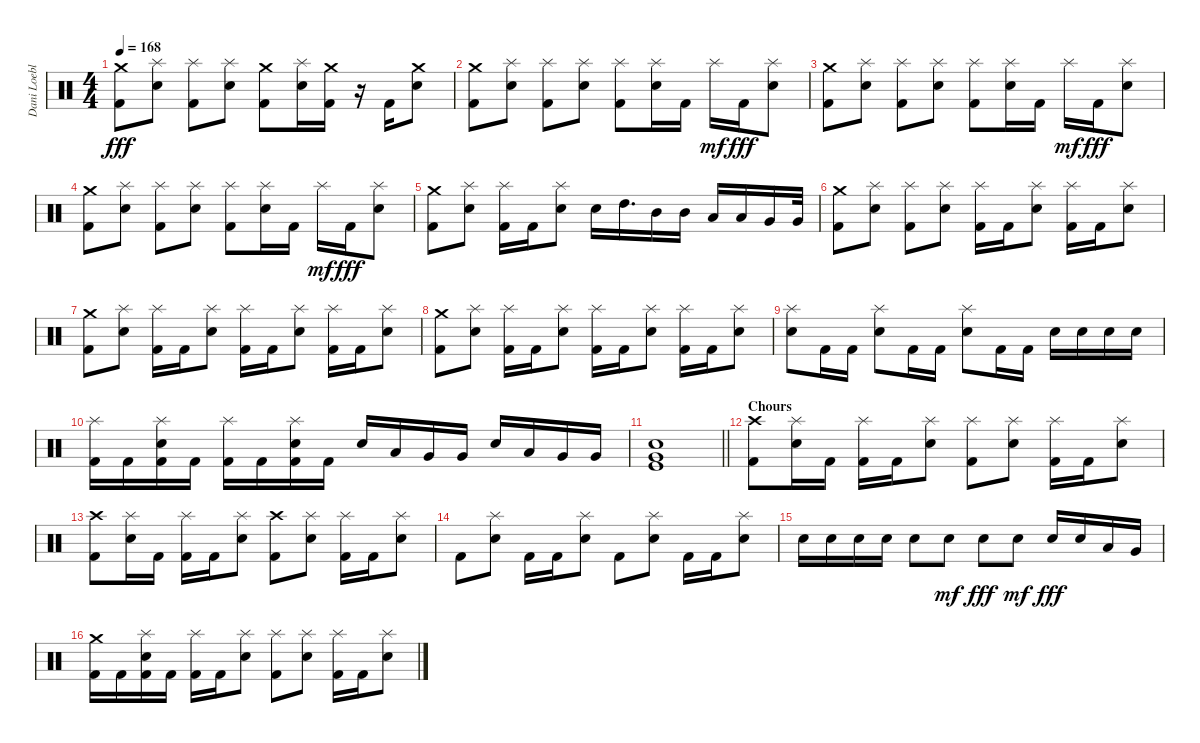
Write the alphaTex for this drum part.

\track ("Dani Loeble" "Dani Loebl") {instrument percussion}
\staff {score}
\articulation defaults
\ts (4 4)
\tempo 168
\clef neutral
\ks c
("Crash medium (hit)" "Kick (hit) 2").8{dy fff} ("Splash (hit)" "Electric Snare (hit)").8 ("Splash (hit)" "Kick (hit) 2").8 ("Splash (hit)" "Electric Snare (hit)").8 ("Crash medium (hit)" "Kick (hit) 2").8 ("Splash (hit)" "Electric Snare (hit)").16 ("Crash medium (hit)" "Kick (hit) 2").16 r.16 "Kick (hit) 2".16 ("Crash medium (hit)" "Electric Snare (hit)").8 |
("Crash medium (hit)" "Kick (hit) 2").8 ("Splash (hit)" "Electric Snare (hit)").8 ("Splash (hit)" "Kick (hit) 2").8 ("Splash (hit)" "Electric Snare (hit)").8 ("Splash (hit)" "Kick (hit) 2").8 ("Splash (hit)" "Electric Snare (hit)").16 "Kick (hit) 2".16 "Splash (hit)".16{dy mf} "Kick (hit) 2".16{dy fff} ("Splash (hit)" "Electric Snare (hit)").8 |
("Crash medium (hit)" "Kick (hit) 2").8 ("Splash (hit)" "Electric Snare (hit)").8 ("Splash (hit)" "Kick (hit) 2").8 ("Splash (hit)" "Electric Snare (hit)").8 ("Splash (hit)" "Kick (hit) 2").8 ("Splash (hit)" "Electric Snare (hit)").16 "Kick (hit) 2".16 "Splash (hit)".16{dy mf} "Kick (hit) 2".16{dy fff} ("Splash (hit)" "Electric Snare (hit)").8 |
("Crash medium (hit)" "Kick (hit) 2").8 ("Splash (hit)" "Electric Snare (hit)").8 ("Splash (hit)" "Kick (hit) 2").8 ("Splash (hit)" "Electric Snare (hit)").8 ("Splash (hit)" "Kick (hit) 2").8 ("Splash (hit)" "Electric Snare (hit)").16 "Kick (hit) 2".16 "Splash (hit)".16{dy mf} "Kick (hit) 2".16{dy fff} ("Splash (hit)" "Electric Snare (hit)").8 |
("Crash medium (hit)" "Kick (hit) 2").8 ("Splash (hit)" "Electric Snare (hit)").8 ("Splash (hit)" "Kick (hit) 2").16 "Kick (hit) 2".16 ("Splash (hit)" "Electric Snare (hit)").8 "Electric Snare (hit)".16 "High Tom (hit)".16{d} "Mid Tom (hit)".16 "Mid Tom (hit)".16 "Low Tom (hit)".16 "Low Tom (hit)".16 "Very Low Tom (hit)".16 "Very Low Tom (hit)".32 |
("Crash medium (hit)" "Kick (hit) 2").8 ("Splash (hit)" "Electric Snare (hit)").8 ("Splash (hit)" "Kick (hit) 2").8 ("Splash (hit)" "Electric Snare (hit)").8 ("Splash (hit)" "Kick (hit) 2").16 "Kick (hit) 2".16 ("Splash (hit)" "Electric Snare (hit)").8 ("Splash (hit)" "Kick (hit) 2").16 "Kick (hit) 2".16 ("Splash (hit)" "Electric Snare (hit)").8 |
("Crash medium (hit)" "Kick (hit) 2").8 ("Splash (hit)" "Electric Snare (hit)").8 ("Splash (hit)" "Kick (hit) 2").16 "Kick (hit) 2".16 ("Splash (hit)" "Electric Snare (hit)").8 ("Splash (hit)" "Kick (hit) 2").16 "Kick (hit) 2".16 ("Splash (hit)" "Electric Snare (hit)").8 ("Splash (hit)" "Kick (hit) 2").16 "Kick (hit) 2".16 ("Splash (hit)" "Electric Snare (hit)").8 |
("Crash medium (hit)" "Kick (hit) 2").8 ("Splash (hit)" "Electric Snare (hit)").8 ("Splash (hit)" "Kick (hit) 2").16 "Kick (hit) 2".16 ("Splash (hit)" "Electric Snare (hit)").8 ("Splash (hit)" "Kick (hit) 2").16 "Kick (hit) 2".16 ("Splash (hit)" "Electric Snare (hit)").8 ("Splash (hit)" "Kick (hit) 2").16 "Kick (hit) 2".16 ("Splash (hit)" "Electric Snare (hit)").8 |
("Splash (hit)" "Electric Snare (hit)").8 "Kick (hit) 2".16 "Kick (hit) 2".16 ("Splash (hit)" "Electric Snare (hit)").8 "Kick (hit) 2".16 "Kick (hit) 2".16 ("Splash (hit)" "Electric Snare (hit)").8 "Kick (hit) 2".16 "Kick (hit) 2".16 "Electric Snare (hit)".16 "Electric Snare (hit)".16 "Electric Snare (hit)".16 "Electric Snare (hit)".16 |
("Splash (hit)" "Kick (hit) 2").16 "Kick (hit) 2".16 ("Splash (hit)" "Electric Snare (hit)" "Kick (hit) 2").16 "Kick (hit) 2".16 ("Splash (hit)" "Kick (hit) 2").16 "Kick (hit) 2".16 ("Splash (hit)" "Electric Snare (hit)" "Kick (hit) 2").16 "Kick (hit) 2".16 "Electric Snare (hit)".16 "Low Tom (hit)".16 "Very Low Tom (hit)".16 "Very Low Tom (hit)".16 "Electric Snare (hit)".16 "Low Tom (hit)".16 "Very Low Tom (hit)".16 "Very Low Tom (hit)".16 |
\barLineRight lightlight
("Electric Snare (hit)" "Very Low Tom (hit)" "Kick (hit)").1 |
\section ("" "Chours")
("Crash high (hit)" "Kick (hit) 2").8 ("Splash (hit)" "Electric Snare (hit)").16 "Kick (hit) 2".16 ("Splash (hit)" "Kick (hit) 2").16 "Kick (hit) 2".16 ("Splash (hit)" "Electric Snare (hit)").8 ("Splash (hit)" "Kick (hit) 2").8 ("Splash (hit)" "Electric Snare (hit)").8 ("Splash (hit)" "Kick (hit) 2").16 "Kick (hit) 2".16 ("Splash (hit)" "Electric Snare (hit)").8 |
("Crash high (hit)" "Kick (hit) 2").8 ("Splash (hit)" "Electric Snare (hit)").16 "Kick (hit) 2".16 ("Splash (hit)" "Kick (hit) 2").16 "Kick (hit) 2".16 ("Splash (hit)" "Electric Snare (hit)").8 ("Crash high (hit)" "Kick (hit) 2").8 ("Splash (hit)" "Electric Snare (hit)").8 ("Splash (hit)" "Kick (hit) 2").16 "Kick (hit) 2".16 ("Splash (hit)" "Electric Snare (hit)").8 |
"Kick (hit) 2".8 ("Splash (hit)" "Electric Snare (hit)").8 "Kick (hit) 2".16 "Kick (hit) 2".16 ("Splash (hit)" "Electric Snare (hit)").8 "Kick (hit) 2".8 ("Splash (hit)" "Electric Snare (hit)").8 "Kick (hit) 2".16 "Kick (hit) 2".16 ("Splash (hit)" "Electric Snare (hit)").8 |
"Electric Snare (hit)".16 "Electric Snare (hit)".16 "Electric Snare (hit)".16 "Electric Snare (hit)".16 "Electric Snare (hit)".8 "Electric Snare (hit)".8{dy mf} "Electric Snare (hit)".8{dy fff} "Electric Snare (hit)".8{dy mf} "Electric Snare (hit)".16{dy fff} "Electric Snare (hit)".16 "Low Tom (hit)".16 "Very Low Tom (hit)".16 |
("Crash medium (hit)" "Kick (hit) 2").16 "Kick (hit) 2".16 ("Splash (hit)" "Electric Snare (hit)" "Kick (hit) 2").16 "Kick (hit) 2".16 ("Splash (hit)" "Kick (hit) 2").16 "Kick (hit) 2".16 ("Splash (hit)" "Electric Snare (hit)").8 ("Splash (hit)" "Kick (hit) 2").8 ("Splash (hit)" "Electric Snare (hit)").8 ("Splash (hit)" "Kick (hit) 2").16 "Kick (hit) 2".16 ("Splash (hit)" "Electric Snare (hit)").8
